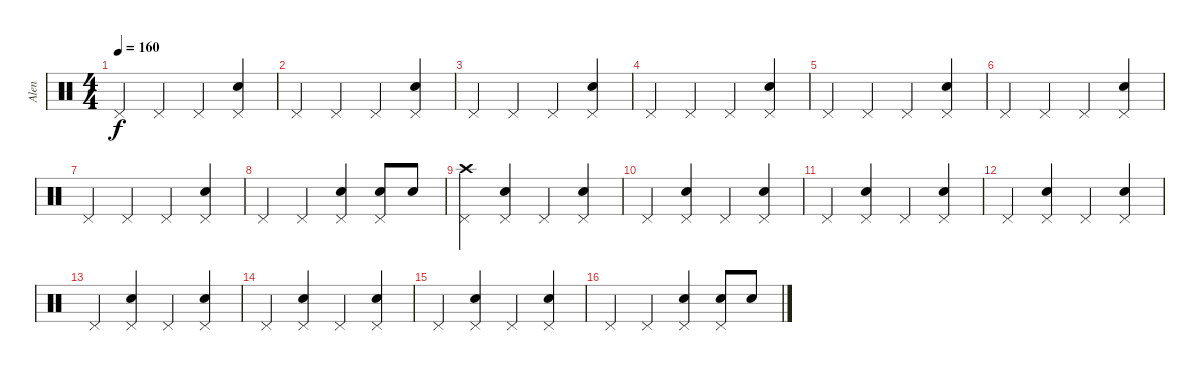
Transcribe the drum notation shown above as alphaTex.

\track ("Alen" "Alen") {instrument percussion}
\staff {score}
\articulation defaults
\ts (4 4)
\tempo 160
\clef neutral
\ks c "Pedal Hi-Hat (hit)".4{dy f} "Pedal Hi-Hat (hit)".4 "Pedal Hi-Hat (hit)".4
("Pedal Hi-Hat (hit)" "Snare (hit) 2").4 |
"Pedal Hi-Hat (hit)".4 "Pedal Hi-Hat (hit)".4 "Pedal Hi-Hat (hit)".4 ("Pedal Hi-Hat (hit)" "Snare (hit) 2").4 |
"Pedal Hi-Hat (hit)".4 "Pedal Hi-Hat (hit)".4 "Pedal Hi-Hat (hit)".4 ("Pedal Hi-Hat (hit)" "Snare (hit) 2").4 |
"Pedal Hi-Hat (hit)".4 "Pedal Hi-Hat (hit)".4 "Pedal Hi-Hat (hit)".4 ("Pedal Hi-Hat (hit)" "Snare (hit) 2").4 |
"Pedal Hi-Hat (hit)".4 "Pedal Hi-Hat (hit)".4 "Pedal Hi-Hat (hit)".4 ("Pedal Hi-Hat (hit)" "Snare (hit) 2").4 |
"Pedal Hi-Hat (hit)".4 "Pedal Hi-Hat (hit)".4 "Pedal Hi-Hat (hit)".4 ("Pedal Hi-Hat (hit)" "Snare (hit) 2").4 |
"Pedal Hi-Hat (hit)".4 "Pedal Hi-Hat (hit)".4 "Pedal Hi-Hat (hit)".4 ("Pedal Hi-Hat (hit)" "Snare (hit) 2").4 |
"Pedal Hi-Hat (hit)".4 "Pedal Hi-Hat (hit)".4 ("Pedal Hi-Hat (hit)" "Snare (hit) 2").4 ("Pedal Hi-Hat (hit)" "Snare (hit) 2").8 "Snare (hit) 2".8 |
("Pedal Hi-Hat (hit)" "Crash high (hit)").4 ("Pedal Hi-Hat (hit)" "Snare (hit) 2").4 "Pedal Hi-Hat (hit)".4 ("Pedal Hi-Hat (hit)" "Snare (hit) 2").4 |
"Pedal Hi-Hat (hit)".4 ("Pedal Hi-Hat (hit)" "Snare (hit) 2").4 "Pedal Hi-Hat (hit)".4 ("Pedal Hi-Hat (hit)" "Snare (hit) 2").4 |
"Pedal Hi-Hat (hit)".4 ("Pedal Hi-Hat (hit)" "Snare (hit) 2").4 "Pedal Hi-Hat (hit)".4 ("Pedal Hi-Hat (hit)" "Snare (hit) 2").4 |
"Pedal Hi-Hat (hit)".4 ("Pedal Hi-Hat (hit)" "Snare (hit) 2").4 "Pedal Hi-Hat (hit)".4 ("Pedal Hi-Hat (hit)" "Snare (hit) 2").4 |
"Pedal Hi-Hat (hit)".4 ("Pedal Hi-Hat (hit)" "Snare (hit) 2").4 "Pedal Hi-Hat (hit)".4 ("Pedal Hi-Hat (hit)" "Snare (hit) 2").4 |
"Pedal Hi-Hat (hit)".4 ("Pedal Hi-Hat (hit)" "Snare (hit) 2").4 "Pedal Hi-Hat (hit)".4 ("Pedal Hi-Hat (hit)" "Snare (hit) 2").4 |
"Pedal Hi-Hat (hit)".4 ("Pedal Hi-Hat (hit)" "Snare (hit) 2").4 "Pedal Hi-Hat (hit)".4 ("Pedal Hi-Hat (hit)" "Snare (hit) 2").4 |
"Pedal Hi-Hat (hit)".4 "Pedal Hi-Hat (hit)".4 ("Pedal Hi-Hat (hit)" "Snare (hit) 2").4 ("Pedal Hi-Hat (hit)" "Snare (hit) 2").8 "Snare (hit) 2".8
